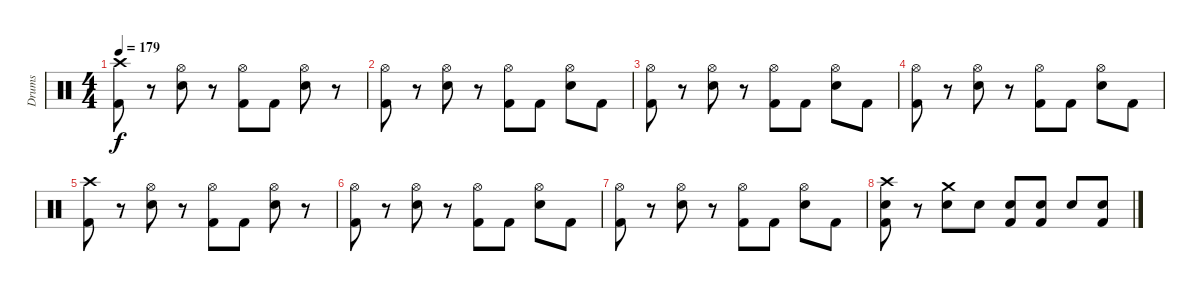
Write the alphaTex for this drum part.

\track ("Drums" "Drums") {instrument percussion}
\staff {score}
\articulation defaults
\ts (4 4)
\tempo 179
\clef neutral
\ks c
("Crash high (hit)" "Kick (hit) 2").8{dy f} r.8 ("Hi-Hat (open)" "Snare (hit) 2").8 r.8 ("Hi-Hat (open)" "Kick (hit) 2").8 "Kick (hit) 2".8 ("Hi-Hat (open)" "Snare (hit) 2").8 r.8 |
("Hi-Hat (open)" "Kick (hit) 2").8 r.8 ("Hi-Hat (open)" "Snare (hit) 2").8 r.8 ("Hi-Hat (open)" "Kick (hit) 2").8 "Kick (hit) 2".8 ("Hi-Hat (open)" "Snare (hit) 2").8 "Kick (hit) 2".8 |
("Hi-Hat (open)" "Kick (hit) 2").8 r.8 ("Hi-Hat (open)" "Snare (hit) 2").8 r.8 ("Hi-Hat (open)" "Kick (hit) 2").8 "Kick (hit) 2".8 ("Hi-Hat (open)" "Snare (hit) 2").8 "Kick (hit) 2".8 |
("Hi-Hat (open)" "Kick (hit) 2").8 r.8 ("Hi-Hat (open)" "Snare (hit) 2").8 r.8 ("Hi-Hat (open)" "Kick (hit) 2").8 "Kick (hit) 2".8 ("Hi-Hat (open)" "Snare (hit) 2").8 "Kick (hit) 2".8 |
("Crash high (hit)" "Kick (hit) 2").8 r.8 ("Hi-Hat (open)" "Snare (hit) 2").8 r.8 ("Hi-Hat (open)" "Kick (hit) 2").8 "Kick (hit) 2".8 ("Hi-Hat (open)" "Snare (hit) 2").8 r.8 |
("Hi-Hat (open)" "Kick (hit) 2").8 r.8 ("Hi-Hat (open)" "Snare (hit) 2").8 r.8 ("Hi-Hat (open)" "Kick (hit) 2").8 "Kick (hit) 2".8 ("Hi-Hat (open)" "Snare (hit) 2").8 "Kick (hit) 2".8 |
("Hi-Hat (open)" "Kick (hit) 2").8 r.8 ("Hi-Hat (open)" "Snare (hit) 2").8 r.8 ("Hi-Hat (open)" "Kick (hit) 2").8 "Kick (hit) 2".8 ("Hi-Hat (open)" "Snare (hit) 2").8 "Kick (hit) 2".8 |
("Crash high (hit)" "Snare (hit) 2" "Kick (hit) 2").8 r.8 ("Crash medium (hit)" "Snare (hit) 2").8 "Snare (hit) 2".8 ("Snare (hit) 2" "Kick (hit) 2").8 ("Snare (hit) 2" "Kick (hit) 2").8 "Snare (hit) 2".8 ("Snare (hit) 2" "Kick (hit) 2").8
